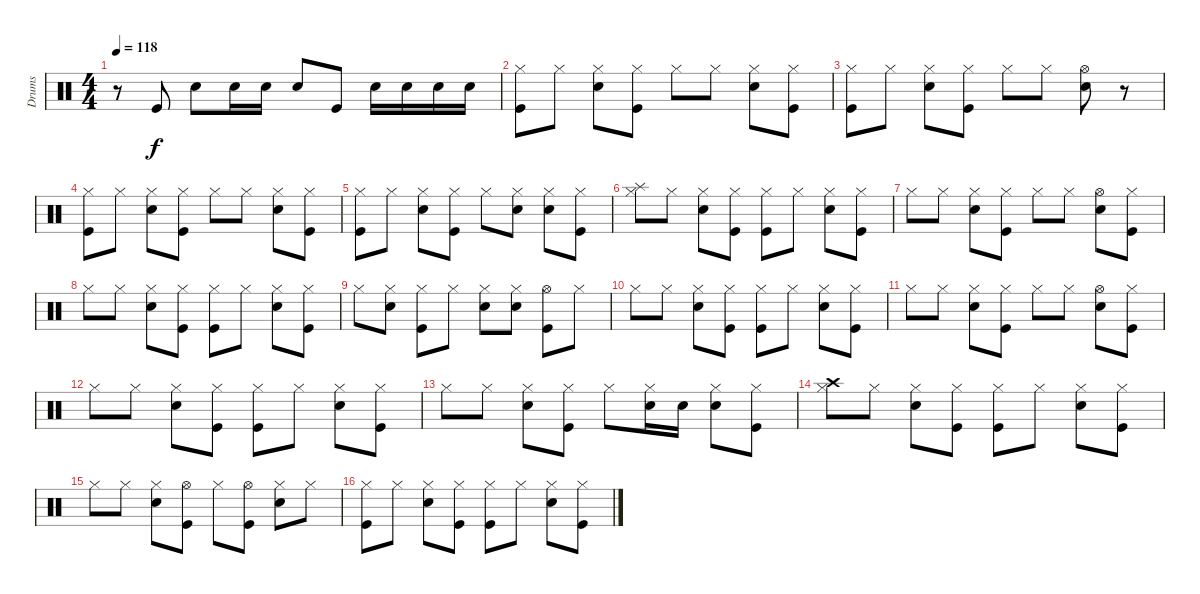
\track ("Drums" "Drums") {instrument percussion}
\staff {score}
\articulation defaults
\ts (4 4)
\tempo 118
\clef neutral
\ks c
r.8{dy f} "Kick (hit)".8 "Snare (hit) 2".8 "Snare (hit) 2".16 "Snare (hit) 2".16 "Snare (hit) 2".8 "Kick (hit)".8 "Snare (hit) 2".16 "Snare (hit) 2".16 "Snare (hit) 2".16 "Snare (hit) 2".16 |
("Hi-Hat (closed)" "Kick (hit)").8 "Hi-Hat (closed)".8 ("Hi-Hat (closed)" "Snare (hit) 2").8 ("Hi-Hat (closed)" "Kick (hit)").8 "Hi-Hat (closed)".8 "Hi-Hat (closed)".8 ("Hi-Hat (closed)" "Snare (hit) 2").8 ("Hi-Hat (closed)" "Kick (hit)").8 |
("Hi-Hat (closed)" "Kick (hit)").8 "Hi-Hat (closed)".8 ("Hi-Hat (closed)" "Snare (hit) 2").8 ("Hi-Hat (closed)" "Kick (hit)").8 "Hi-Hat (closed)".8 "Hi-Hat (closed)".8 ("Hi-Hat (open)" "Snare (hit) 2").8 r.8 |
("Hi-Hat (closed)" "Kick (hit)").8 "Hi-Hat (closed)".8 ("Hi-Hat (closed)" "Snare (hit) 2").8 ("Hi-Hat (closed)" "Kick (hit)").8 "Hi-Hat (closed)".8 "Hi-Hat (closed)".8 ("Hi-Hat (closed)" "Snare (hit) 2").8 ("Hi-Hat (closed)" "Kick (hit)").8 |
("Hi-Hat (closed)" "Kick (hit)").8 "Hi-Hat (closed)".8 ("Hi-Hat (closed)" "Snare (hit) 2").8 ("Hi-Hat (closed)" "Kick (hit)").8 "Hi-Hat (closed)".8 ("Hi-Hat (closed)" "Snare (hit) 2").8 ("Hi-Hat (closed)" "Snare (hit) 2").8 ("Hi-Hat (closed)" "Kick (hit)").8 |
("Hi-Hat (closed)" "Splash (hit)").8 "Hi-Hat (closed)".8 ("Hi-Hat (closed)" "Snare (hit) 2").8 ("Hi-Hat (closed)" "Kick (hit)").8 ("Hi-Hat (closed)" "Kick (hit)").8 "Hi-Hat (closed)".8 ("Hi-Hat (closed)" "Snare (hit) 2").8 ("Hi-Hat (closed)" "Kick (hit)").8 |
"Hi-Hat (closed)".8 "Hi-Hat (closed)".8 ("Hi-Hat (closed)" "Snare (hit) 2").8 ("Hi-Hat (closed)" "Kick (hit)").8 "Hi-Hat (closed)".8 "Hi-Hat (closed)".8 ("Hi-Hat (open)" "Snare (hit) 2").8 ("Hi-Hat (closed)" "Kick (hit)").8 |
"Hi-Hat (closed)".8 "Hi-Hat (closed)".8 ("Hi-Hat (closed)" "Snare (hit) 2").8 ("Hi-Hat (closed)" "Kick (hit)").8 ("Hi-Hat (closed)" "Kick (hit)").8 "Hi-Hat (closed)".8 ("Hi-Hat (closed)" "Snare (hit) 2").8 ("Hi-Hat (closed)" "Kick (hit)").8 |
"Hi-Hat (closed)".8 ("Hi-Hat (closed)" "Snare (hit) 2").8 ("Hi-Hat (closed)" "Kick (hit)").8 "Hi-Hat (closed)".8 ("Hi-Hat (closed)" "Snare (hit) 2").8 ("Hi-Hat (closed)" "Snare (hit) 2").8 ("Hi-Hat (open)" "Kick (hit)").8 "Hi-Hat (closed)".8 |
"Hi-Hat (closed)".8 "Hi-Hat (closed)".8 ("Hi-Hat (closed)" "Snare (hit) 2").8 ("Hi-Hat (closed)" "Kick (hit)").8 ("Hi-Hat (closed)" "Kick (hit)").8 "Hi-Hat (closed)".8 ("Hi-Hat (closed)" "Snare (hit) 2").8 ("Hi-Hat (closed)" "Kick (hit)").8 |
"Hi-Hat (closed)".8 "Hi-Hat (closed)".8 ("Hi-Hat (closed)" "Snare (hit) 2").8 ("Hi-Hat (closed)" "Kick (hit)").8 "Hi-Hat (closed)".8 "Hi-Hat (closed)".8 ("Hi-Hat (open)" "Snare (hit) 2").8 ("Hi-Hat (closed)" "Kick (hit)").8 |
"Hi-Hat (closed)".8 "Hi-Hat (closed)".8 ("Hi-Hat (closed)" "Snare (hit) 2").8 ("Hi-Hat (closed)" "Kick (hit)").8 ("Hi-Hat (closed)" "Kick (hit)").8 "Hi-Hat (closed)".8 ("Hi-Hat (closed)" "Snare (hit) 2").8 ("Hi-Hat (closed)" "Kick (hit)").8 |
"Hi-Hat (closed)".8 "Hi-Hat (closed)".8 ("Hi-Hat (closed)" "Snare (hit) 2").8 ("Hi-Hat (closed)" "Kick (hit)").8 "Hi-Hat (closed)".8 ("Hi-Hat (closed)" "Snare (hit) 2").16 "Snare (hit) 2".16 ("Hi-Hat (closed)" "Snare (hit) 2").8 ("Hi-Hat (closed)" "Kick (hit)").8 |
("Hi-Hat (closed)" "Crash high (hit)").8 "Hi-Hat (closed)".8 ("Hi-Hat (closed)" "Snare (hit) 2").8 ("Hi-Hat (closed)" "Kick (hit)").8 ("Hi-Hat (closed)" "Kick (hit)").8 "Hi-Hat (closed)".8 ("Hi-Hat (closed)" "Snare (hit) 2").8 ("Hi-Hat (closed)" "Kick (hit)").8 |
"Hi-Hat (closed)".8 "Hi-Hat (closed)".8 ("Hi-Hat (closed)" "Snare (hit) 2").8 ("Hi-Hat (open)" "Kick (hit)").8 "Hi-Hat (closed)".8 ("Hi-Hat (open)" "Kick (hit)").8 ("Hi-Hat (closed)" "Snare (hit) 2").8 "Hi-Hat (closed)".8 |
("Hi-Hat (closed)" "Kick (hit)").8 "Hi-Hat (closed)".8 ("Hi-Hat (closed)" "Snare (hit) 2").8 ("Hi-Hat (closed)" "Kick (hit)").8 ("Hi-Hat (closed)" "Kick (hit)").8 "Hi-Hat (closed)".8 ("Hi-Hat (closed)" "Snare (hit) 2").8 ("Hi-Hat (closed)" "Kick (hit)").8
